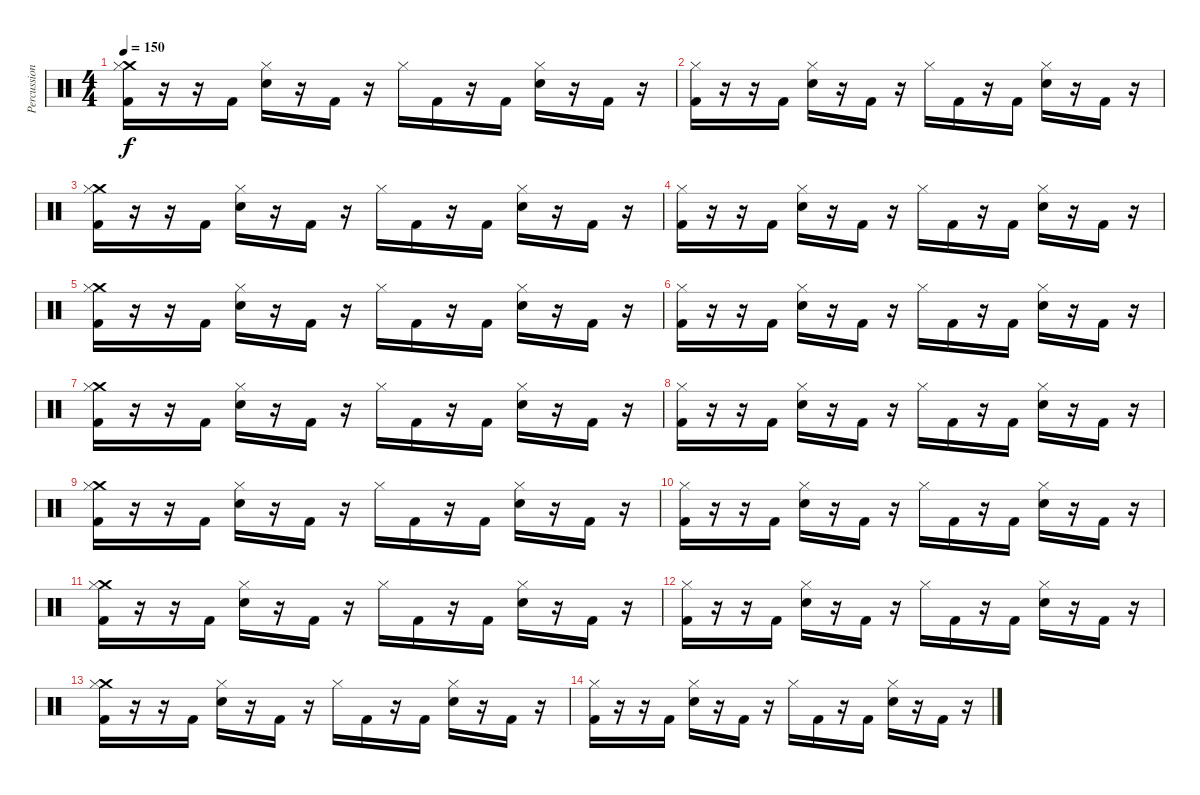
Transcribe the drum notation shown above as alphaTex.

\track ("Percussion" "Percussion") {instrument percussion}
\staff {score}
\articulation defaults
\ts (4 4)
\tempo 150
\clef neutral
\ks c
("Crash medium (hit)" "Hi-Hat (closed)" "Kick (hit) 2").16{dy f} r.16 r.16 "Kick (hit) 2".16 ("Snare (hit) 2" "Hi-Hat (closed)").16 r.16 "Kick (hit) 2".16 r.16 "Hi-Hat (closed)".16 "Kick (hit) 2".16 r.16 "Kick (hit) 2".16 ("Snare (hit) 2" "Hi-Hat (closed)").16 r.16 "Kick (hit) 2".16 r.16 |
("Hi-Hat (closed)" "Kick (hit) 2").16 r.16 r.16 "Kick (hit) 2".16 ("Snare (hit) 2" "Hi-Hat (closed)").16 r.16 "Kick (hit) 2".16 r.16 "Hi-Hat (closed)".16 "Kick (hit) 2".16 r.16 "Kick (hit) 2".16 ("Snare (hit) 2" "Hi-Hat (closed)").16 r.16 "Kick (hit) 2".16 r.16 |
("Crash medium (hit)" "Hi-Hat (closed)" "Kick (hit) 2").16 r.16 r.16 "Kick (hit) 2".16 ("Snare (hit) 2" "Hi-Hat (closed)").16 r.16 "Kick (hit) 2".16 r.16 "Hi-Hat (closed)".16 "Kick (hit) 2".16 r.16 "Kick (hit) 2".16 ("Snare (hit) 2" "Hi-Hat (closed)").16 r.16 "Kick (hit) 2".16 r.16 |
("Hi-Hat (closed)" "Kick (hit) 2").16 r.16 r.16 "Kick (hit) 2".16 ("Snare (hit) 2" "Hi-Hat (closed)").16 r.16 "Kick (hit) 2".16 r.16 "Hi-Hat (closed)".16 "Kick (hit) 2".16 r.16 "Kick (hit) 2".16 ("Snare (hit) 2" "Hi-Hat (closed)").16 r.16 "Kick (hit) 2".16 r.16 |
("Crash medium (hit)" "Hi-Hat (closed)" "Kick (hit) 2").16 r.16 r.16 "Kick (hit) 2".16 ("Snare (hit) 2" "Hi-Hat (closed)").16 r.16 "Kick (hit) 2".16 r.16 "Hi-Hat (closed)".16 "Kick (hit) 2".16 r.16 "Kick (hit) 2".16 ("Snare (hit) 2" "Hi-Hat (closed)").16 r.16 "Kick (hit) 2".16 r.16 |
("Hi-Hat (closed)" "Kick (hit) 2").16 r.16 r.16 "Kick (hit) 2".16 ("Snare (hit) 2" "Hi-Hat (closed)").16 r.16 "Kick (hit) 2".16 r.16 "Hi-Hat (closed)".16 "Kick (hit) 2".16 r.16 "Kick (hit) 2".16 ("Snare (hit) 2" "Hi-Hat (closed)").16 r.16 "Kick (hit) 2".16 r.16 |
("Crash medium (hit)" "Hi-Hat (closed)" "Kick (hit) 2").16 r.16 r.16 "Kick (hit) 2".16 ("Snare (hit) 2" "Hi-Hat (closed)").16 r.16 "Kick (hit) 2".16 r.16 "Hi-Hat (closed)".16 "Kick (hit) 2".16 r.16 "Kick (hit) 2".16 ("Snare (hit) 2" "Hi-Hat (closed)").16 r.16 "Kick (hit) 2".16 r.16 |
("Hi-Hat (closed)" "Kick (hit) 2").16 r.16 r.16 "Kick (hit) 2".16 ("Snare (hit) 2" "Hi-Hat (closed)").16 r.16 "Kick (hit) 2".16 r.16 "Hi-Hat (closed)".16 "Kick (hit) 2".16 r.16 "Kick (hit) 2".16 ("Snare (hit) 2" "Hi-Hat (closed)").16 r.16 "Kick (hit) 2".16 r.16 |
("Crash medium (hit)" "Hi-Hat (closed)" "Kick (hit) 2").16 r.16 r.16 "Kick (hit) 2".16 ("Snare (hit) 2" "Hi-Hat (closed)").16 r.16 "Kick (hit) 2".16 r.16 "Hi-Hat (closed)".16 "Kick (hit) 2".16 r.16 "Kick (hit) 2".16 ("Snare (hit) 2" "Hi-Hat (closed)").16 r.16 "Kick (hit) 2".16 r.16 |
("Hi-Hat (closed)" "Kick (hit) 2").16 r.16 r.16 "Kick (hit) 2".16 ("Snare (hit) 2" "Hi-Hat (closed)").16 r.16 "Kick (hit) 2".16 r.16 "Hi-Hat (closed)".16 "Kick (hit) 2".16 r.16 "Kick (hit) 2".16 ("Snare (hit) 2" "Hi-Hat (closed)").16 r.16 "Kick (hit) 2".16 r.16 |
("Crash medium (hit)" "Hi-Hat (closed)" "Kick (hit) 2").16 r.16 r.16 "Kick (hit) 2".16 ("Snare (hit) 2" "Hi-Hat (closed)").16 r.16 "Kick (hit) 2".16 r.16 "Hi-Hat (closed)".16 "Kick (hit) 2".16 r.16 "Kick (hit) 2".16 ("Snare (hit) 2" "Hi-Hat (closed)").16 r.16 "Kick (hit) 2".16 r.16 |
("Hi-Hat (closed)" "Kick (hit) 2").16 r.16 r.16 "Kick (hit) 2".16 ("Snare (hit) 2" "Hi-Hat (closed)").16 r.16 "Kick (hit) 2".16 r.16 "Hi-Hat (closed)".16 "Kick (hit) 2".16 r.16 "Kick (hit) 2".16 ("Snare (hit) 2" "Hi-Hat (closed)").16 r.16 "Kick (hit) 2".16 r.16 |
("Crash medium (hit)" "Hi-Hat (closed)" "Kick (hit) 2").16 r.16 r.16 "Kick (hit) 2".16 ("Snare (hit) 2" "Hi-Hat (closed)").16 r.16 "Kick (hit) 2".16 r.16 "Hi-Hat (closed)".16 "Kick (hit) 2".16 r.16 "Kick (hit) 2".16 ("Snare (hit) 2" "Hi-Hat (closed)").16 r.16 "Kick (hit) 2".16 r.16 |
("Hi-Hat (closed)" "Kick (hit) 2").16 r.16 r.16 "Kick (hit) 2".16 ("Snare (hit) 2" "Hi-Hat (closed)").16 r.16 "Kick (hit) 2".16 r.16 "Hi-Hat (closed)".16 "Kick (hit) 2".16 r.16 "Kick (hit) 2".16 ("Snare (hit) 2" "Hi-Hat (closed)").16 r.16 "Kick (hit) 2".16 r.16
